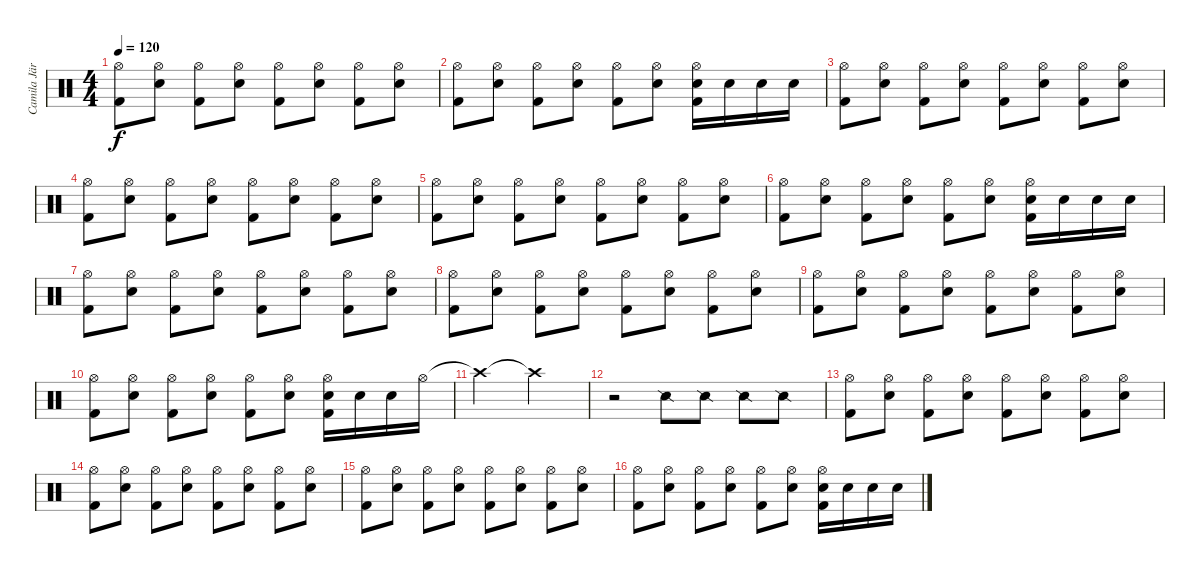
\track ("Camila Jära" "Camila Jär") {instrument percussion}
\staff {score}
\articulation defaults
\ts (4 4)
\tempo 120
\clef neutral
\ks c
("Hi-Hat (open)" "Kick (hit) 2").8{dy f} ("Hi-Hat (open)" "Snare (hit) 2").8 ("Hi-Hat (open)" "Kick (hit) 2").8 ("Hi-Hat (open)" "Snare (hit) 2").8 ("Hi-Hat (open)" "Kick (hit) 2").8 ("Hi-Hat (open)" "Snare (hit) 2").8 ("Hi-Hat (open)" "Kick (hit) 2").8 ("Hi-Hat (open)" "Snare (hit) 2").8 |
("Hi-Hat (open)" "Kick (hit) 2").8 ("Hi-Hat (open)" "Snare (hit) 2").8 ("Hi-Hat (open)" "Kick (hit) 2").8 ("Hi-Hat (open)" "Snare (hit) 2").8 ("Hi-Hat (open)" "Kick (hit) 2").8 ("Hi-Hat (open)" "Snare (hit) 2").8 ("Hi-Hat (open)" "Snare (hit) 2" "Kick (hit) 2").16 "Snare (hit) 2".16 "Snare (hit) 2".16 "Snare (hit) 2".16 |
("Hi-Hat (open)" "Kick (hit) 2").8 ("Hi-Hat (open)" "Snare (hit) 2").8 ("Hi-Hat (open)" "Kick (hit) 2").8 ("Hi-Hat (open)" "Snare (hit) 2").8 ("Hi-Hat (open)" "Kick (hit) 2").8 ("Hi-Hat (open)" "Snare (hit) 2").8 ("Hi-Hat (open)" "Kick (hit) 2").8 ("Hi-Hat (open)" "Snare (hit) 2").8 |
("Hi-Hat (open)" "Kick (hit) 2").8 ("Hi-Hat (open)" "Snare (hit) 2").8 ("Hi-Hat (open)" "Kick (hit) 2").8 ("Hi-Hat (open)" "Snare (hit) 2").8 ("Hi-Hat (open)" "Kick (hit) 2").8 ("Hi-Hat (open)" "Snare (hit) 2").8 ("Hi-Hat (open)" "Kick (hit) 2").8 ("Hi-Hat (open)" "Snare (hit) 2").8 |
("Hi-Hat (open)" "Kick (hit) 2").8 ("Hi-Hat (open)" "Snare (hit) 2").8 ("Hi-Hat (open)" "Kick (hit) 2").8 ("Hi-Hat (open)" "Snare (hit) 2").8 ("Hi-Hat (open)" "Kick (hit) 2").8 ("Hi-Hat (open)" "Snare (hit) 2").8 ("Hi-Hat (open)" "Kick (hit) 2").8 ("Hi-Hat (open)" "Snare (hit) 2").8 |
("Hi-Hat (open)" "Kick (hit) 2").8 ("Hi-Hat (open)" "Snare (hit) 2").8 ("Hi-Hat (open)" "Kick (hit) 2").8 ("Hi-Hat (open)" "Snare (hit) 2").8 ("Hi-Hat (open)" "Kick (hit) 2").8 ("Hi-Hat (open)" "Snare (hit) 2").8 ("Hi-Hat (open)" "Snare (hit) 2" "Kick (hit) 2").16 "Snare (hit) 2".16 "Snare (hit) 2".16 "Snare (hit) 2".16 |
("Hi-Hat (open)" "Kick (hit) 2").8 ("Hi-Hat (open)" "Snare (hit) 2").8 ("Hi-Hat (open)" "Kick (hit) 2").8 ("Hi-Hat (open)" "Snare (hit) 2").8 ("Hi-Hat (open)" "Kick (hit) 2").8 ("Hi-Hat (open)" "Snare (hit) 2").8 ("Hi-Hat (open)" "Kick (hit) 2").8 ("Hi-Hat (open)" "Snare (hit) 2").8 |
("Hi-Hat (open)" "Kick (hit) 2").8 ("Hi-Hat (open)" "Snare (hit) 2").8 ("Hi-Hat (open)" "Kick (hit) 2").8 ("Hi-Hat (open)" "Snare (hit) 2").8 ("Hi-Hat (open)" "Kick (hit) 2").8 ("Hi-Hat (open)" "Snare (hit) 2").8 ("Hi-Hat (open)" "Kick (hit) 2").8 ("Hi-Hat (open)" "Snare (hit) 2").8 |
("Hi-Hat (open)" "Kick (hit) 2").8 ("Hi-Hat (open)" "Snare (hit) 2").8 ("Hi-Hat (open)" "Kick (hit) 2").8 ("Hi-Hat (open)" "Snare (hit) 2").8 ("Hi-Hat (open)" "Kick (hit) 2").8 ("Hi-Hat (open)" "Snare (hit) 2").8 ("Hi-Hat (open)" "Kick (hit) 2").8 ("Hi-Hat (open)" "Snare (hit) 2").8 |
("Hi-Hat (open)" "Kick (hit) 2").8 ("Hi-Hat (open)" "Snare (hit) 2").8 ("Hi-Hat (open)" "Kick (hit) 2").8 ("Hi-Hat (open)" "Snare (hit) 2").8 ("Hi-Hat (open)" "Kick (hit) 2").8 ("Hi-Hat (open)" "Snare (hit) 2").8 ("Hi-Hat (open)" "Snare (hit) 2" "Kick (hit) 2").16 "Snare (hit) 2".16 "Snare (hit) 2".16 "Hi-Hat (open)".16 |
"Crash high (hit)"{t}.2 "Crash high (hit)"{t}.2 |
r.2 "Snare (side stick) 2".8 "Snare (side stick) 2".8 "Snare (side stick) 2".8 "Snare (side stick) 2".8 |
("Hi-Hat (open)" "Kick (hit) 2").8 ("Hi-Hat (open)" "Snare (hit) 2").8 ("Hi-Hat (open)" "Kick (hit) 2").8 ("Hi-Hat (open)" "Snare (hit) 2").8 ("Hi-Hat (open)" "Kick (hit) 2").8 ("Hi-Hat (open)" "Snare (hit) 2").8 ("Hi-Hat (open)" "Kick (hit) 2").8 ("Hi-Hat (open)" "Snare (hit) 2").8 |
("Hi-Hat (open)" "Kick (hit) 2").8 ("Hi-Hat (open)" "Snare (hit) 2").8 ("Hi-Hat (open)" "Kick (hit) 2").8 ("Hi-Hat (open)" "Snare (hit) 2").8 ("Hi-Hat (open)" "Kick (hit) 2").8 ("Hi-Hat (open)" "Snare (hit) 2").8 ("Hi-Hat (open)" "Kick (hit) 2").8 ("Hi-Hat (open)" "Snare (hit) 2").8 |
("Hi-Hat (open)" "Kick (hit) 2").8 ("Hi-Hat (open)" "Snare (hit) 2").8 ("Hi-Hat (open)" "Kick (hit) 2").8 ("Hi-Hat (open)" "Snare (hit) 2").8 ("Hi-Hat (open)" "Kick (hit) 2").8 ("Hi-Hat (open)" "Snare (hit) 2").8 ("Hi-Hat (open)" "Kick (hit) 2").8 ("Hi-Hat (open)" "Snare (hit) 2").8 |
("Hi-Hat (open)" "Kick (hit) 2").8 ("Hi-Hat (open)" "Snare (hit) 2").8 ("Hi-Hat (open)" "Kick (hit) 2").8 ("Hi-Hat (open)" "Snare (hit) 2").8 ("Hi-Hat (open)" "Kick (hit) 2").8 ("Hi-Hat (open)" "Snare (hit) 2").8 ("Hi-Hat (open)" "Snare (hit) 2" "Kick (hit) 2").16 "Snare (hit) 2".16 "Snare (hit) 2".16 "Snare (hit) 2".16
